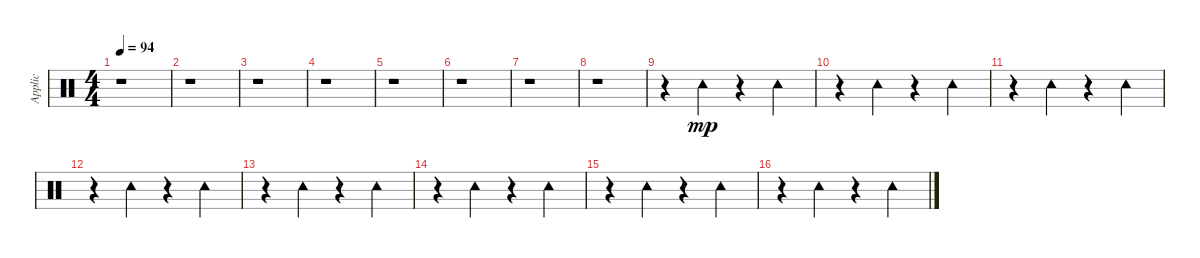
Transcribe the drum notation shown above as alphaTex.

\track ("Applic" "Applic") {instrument percussion}
\staff {score}
\articulation defaults
\ts (4 4)
\tempo 94
\clef neutral
\ks c
r.1{dy f} |
r.1 |
r.1 |
r.1 |
r.1 |
r.1 |
r.1 |
r.1 |
r.4 "Tambourine (hit)".4{dy mp} r.4 "Tambourine (hit)".4 |
r.4 "Tambourine (hit)".4 r.4 "Tambourine (hit)".4 |
r.4 "Tambourine (hit)".4 r.4 "Tambourine (hit)".4 |
r.4 "Tambourine (hit)".4 r.4 "Tambourine (hit)".4 |
r.4 "Tambourine (hit)".4 r.4 "Tambourine (hit)".4 |
r.4 "Tambourine (hit)".4 r.4 "Tambourine (hit)".4 |
r.4 "Tambourine (hit)".4 r.4 "Tambourine (hit)".4 |
r.4 "Tambourine (hit)".4 r.4 "Tambourine (hit)".4
